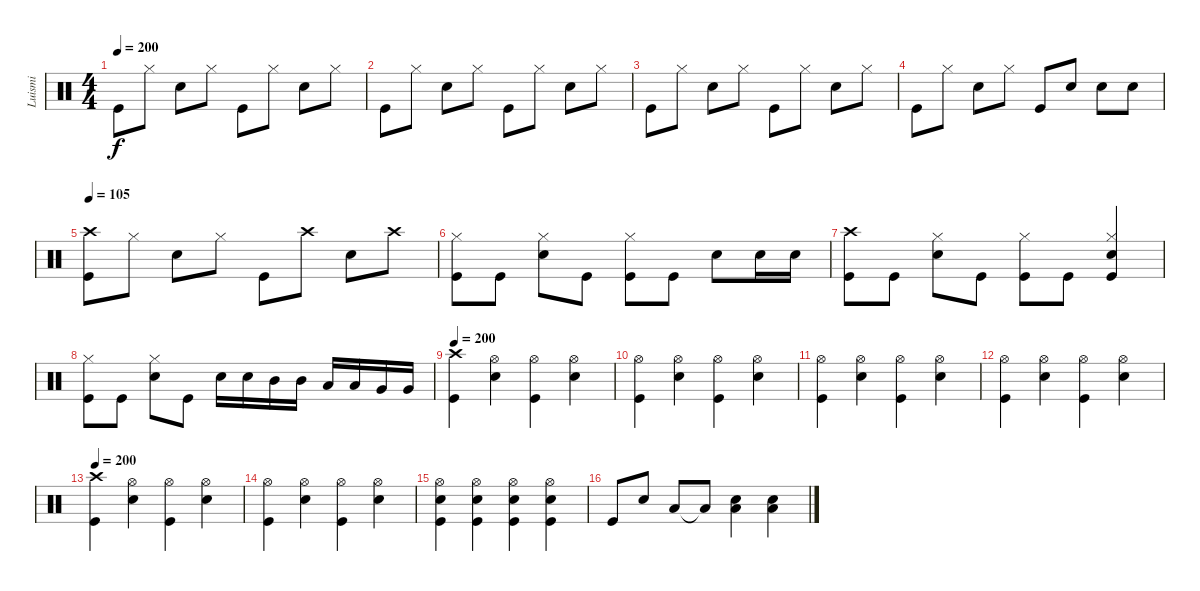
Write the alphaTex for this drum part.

\track ("Luismi" "Luismi") {instrument percussion}
\staff {score}
\articulation defaults
\ts (4 4)
\tempo 200
\clef neutral
\ks c "Kick (hit)".8{dy f} "Hi-Hat (closed)".8 "Snare (hit) 2".8 "Hi-Hat (closed)".8 "Kick (hit)".8 "Hi-Hat (closed)".8 "Snare (hit) 2".8 "Hi-Hat (closed)".8
|
"Kick (hit)".8 "Hi-Hat (closed)".8 "Snare (hit) 2".8 "Hi-Hat (closed)".8 "Kick (hit)".8 "Hi-Hat (closed)".8 "Snare (hit) 2".8 "Hi-Hat (closed)".8 |
"Kick (hit)".8 "Hi-Hat (closed)".8 "Snare (hit) 2".8 "Hi-Hat (closed)".8 "Kick (hit)".8 "Hi-Hat (closed)".8 "Snare (hit) 2".8 "Hi-Hat (closed)".8 |
"Kick (hit)".8 "Hi-Hat (closed)".8 "Snare (hit) 2".8 "Hi-Hat (closed)".8 "Kick (hit)".8 "Snare (hit) 2".8 "Snare (hit) 2".8 "Snare (hit) 2".8 |
\tempo 105
("Kick (hit)" "Crash high (hit)").8 "Hi-Hat (closed)".8 "Snare (hit) 2".8 "Hi-Hat (closed)".8 "Kick (hit)".8 "Crash high (hit)".8 "Snare (hit) 2".8 "Crash high (hit)".8 |
("Kick (hit)" "Hi-Hat (closed)").8 "Kick (hit)".8 ("Snare (hit) 2" "Hi-Hat (closed)").8 "Kick (hit)".8 ("Kick (hit)" "Hi-Hat (closed)").8 "Kick (hit)".8 "Snare (hit) 2".8 "Snare (hit) 2".16 "Snare (hit) 2".16 |
("Kick (hit)" "Crash high (hit)").8 "Kick (hit)".8 ("Snare (hit) 2" "Hi-Hat (closed)").8 "Kick (hit)".8 ("Kick (hit)" "Hi-Hat (closed)").8 "Kick (hit)".8 ("Snare (hit) 2" "Hi-Hat (closed)" "Kick (hit)").4 |
("Kick (hit)" "Hi-Hat (closed)").8 "Kick (hit)".8 ("Snare (hit) 2" "Hi-Hat (closed)").8 "Kick (hit)".8 "Snare (hit) 2".16 "Snare (hit) 2".16 "Mid Tom (hit)".16 "Mid Tom (hit)".16 "Low Tom (hit)".16 "Low Tom (hit)".16 "Very Low Tom (hit)".16 "Very Low Tom (hit)".16 |
\tempo 200
("Kick (hit)" "Crash high (hit)").4 ("Snare (hit) 2" "Hi-Hat (open)").4 ("Kick (hit)" "Hi-Hat (open)").4 ("Snare (hit) 2" "Hi-Hat (open)").4 |
("Kick (hit)" "Hi-Hat (open)").4 ("Hi-Hat (open)" "Snare (hit) 2").4 ("Kick (hit)" "Hi-Hat (open)").4 ("Snare (hit) 2" "Hi-Hat (open)").4 |
("Kick (hit)" "Hi-Hat (open)").4 ("Hi-Hat (open)" "Snare (hit) 2").4 ("Kick (hit)" "Hi-Hat (open)").4 ("Snare (hit) 2" "Hi-Hat (open)").4 |
("Kick (hit)" "Hi-Hat (open)").4 ("Hi-Hat (open)" "Snare (hit) 2").4 ("Kick (hit)" "Hi-Hat (open)").4 ("Snare (hit) 2" "Hi-Hat (open)").4 |
\tempo 200
("Kick (hit)" "Crash high (hit)").4 ("Snare (hit) 2" "Hi-Hat (open)").4 ("Kick (hit)" "Hi-Hat (open)").4 ("Snare (hit) 2" "Hi-Hat (open)").4 |
("Kick (hit)" "Hi-Hat (open)").4 ("Hi-Hat (open)" "Snare (hit) 2").4 ("Kick (hit)" "Hi-Hat (open)").4 ("Snare (hit) 2" "Hi-Hat (open)").4 |
("Hi-Hat (open)" "Snare (hit) 2" "Kick (hit)").4 ("Hi-Hat (open)" "Snare (hit) 2" "Kick (hit)").4 ("Hi-Hat (open)" "Snare (hit) 2" "Kick (hit)").4 ("Hi-Hat (open)" "Snare (hit) 2" "Kick (hit)").4 |
"Kick (hit)".8 "Snare (hit) 2".8 "Low Tom (hit)".8 "Low Tom (hit)"{t}.8 ("Snare (hit) 2" "Low Tom (hit)").4 ("Snare (hit) 2" "Low Tom (hit)").4
